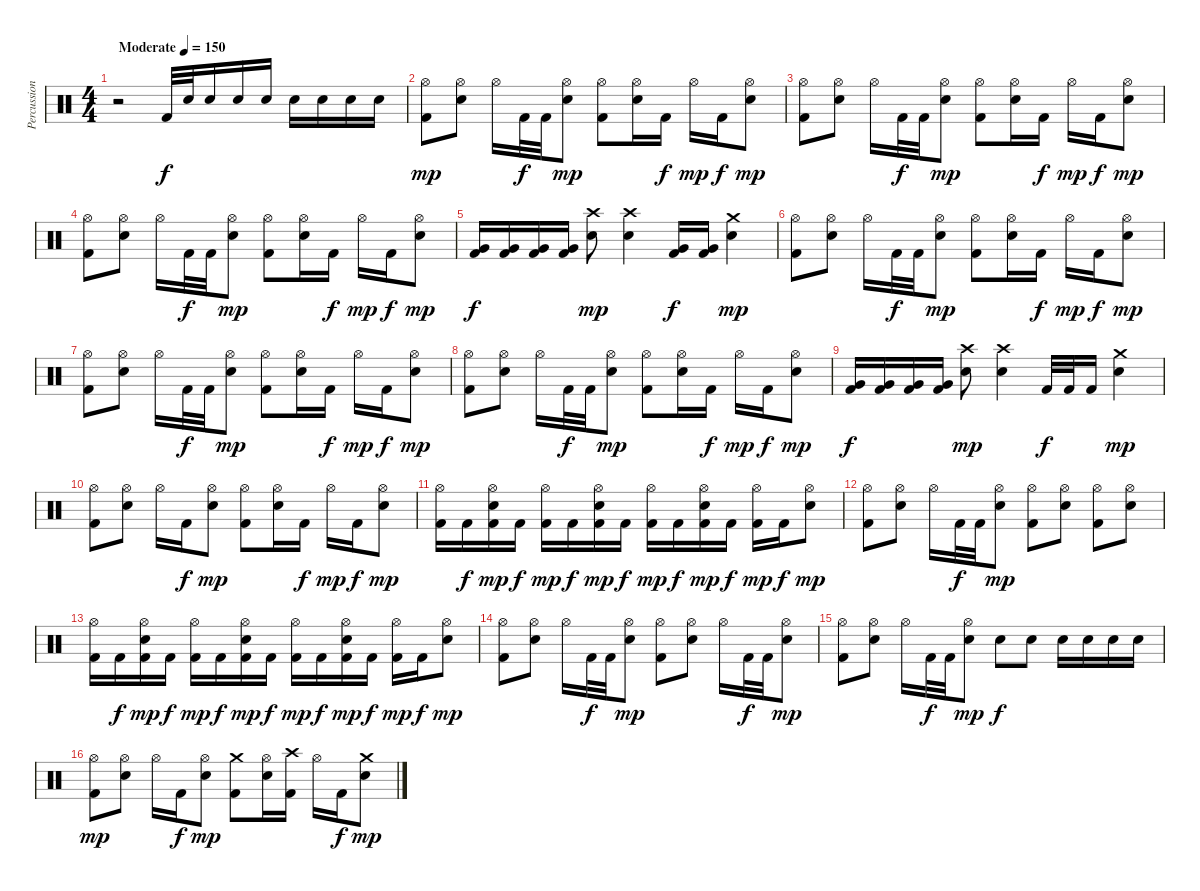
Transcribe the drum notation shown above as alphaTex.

\track ("Percussion" "Percussion") {instrument percussion}
\staff {score}
\articulation defaults
\ts (4 4)
\tempo (150 "Moderate")
\clef neutral
\ks c
r.2{dy f} "Kick (hit) 2".32 "Snare (hit) 2".32 "Snare (hit) 2".16 "Snare (hit) 2".16 "Snare (hit) 2".16 "Snare (hit) 2".16 "Snare (hit) 2".16 "Snare (hit) 2".16 "Snare (hit) 2".16 |
("Hi-Hat (open)" "Kick (hit) 2").8{dy mp} ("Snare (hit) 2" "Hi-Hat (open)").8 "Hi-Hat (open)".16 "Kick (hit) 2".32{dy f} "Kick (hit) 2".32 ("Snare (hit) 2" "Hi-Hat (open)").8{dy mp} ("Hi-Hat (open)" "Kick (hit) 2").8 ("Snare (hit) 2" "Hi-Hat (open)").16 "Kick (hit) 2".16{dy f} "Hi-Hat (open)".16{dy mp} "Kick (hit) 2".16{dy f} ("Snare (hit) 2" "Hi-Hat (open)").8{dy mp} |
("Hi-Hat (open)" "Kick (hit) 2").8 ("Snare (hit) 2" "Hi-Hat (open)").8 "Hi-Hat (open)".16 "Kick (hit) 2".32{dy f} "Kick (hit) 2".32 ("Snare (hit) 2" "Hi-Hat (open)").8{dy mp} ("Hi-Hat (open)" "Kick (hit) 2").8 ("Snare (hit) 2" "Hi-Hat (open)").16 "Kick (hit) 2".16{dy f} "Hi-Hat (open)".16{dy mp} "Kick (hit) 2".16{dy f} ("Snare (hit) 2" "Hi-Hat (open)").8{dy mp} |
("Hi-Hat (open)" "Kick (hit) 2").8 ("Snare (hit) 2" "Hi-Hat (open)").8 "Hi-Hat (open)".16 "Kick (hit) 2".32{dy f} "Kick (hit) 2".32 ("Snare (hit) 2" "Hi-Hat (open)").8{dy mp} ("Hi-Hat (open)" "Kick (hit) 2").8 ("Snare (hit) 2" "Hi-Hat (open)").16 "Kick (hit) 2".16{dy f} "Hi-Hat (open)".16{dy mp} "Kick (hit) 2".16{dy f} ("Snare (hit) 2" "Hi-Hat (open)").8{dy mp} |
("Very Low Tom (hit)" "Kick (hit) 2").16{dy f} ("Very Low Tom (hit)" "Kick (hit) 2").16 ("Very Low Tom (hit)" "Kick (hit) 2").16 ("Very Low Tom (hit)" "Kick (hit) 2").16 ("Crash high (hit)" "Snare (hit) 2").8{dy mp} ("Crash high (hit)" "Snare (hit) 2").4 ("Very Low Tom (hit)" "Kick (hit) 2").16{dy f} ("Very Low Tom (hit)" "Kick (hit) 2").16 ("Crash medium (hit)" "Snare (hit) 2").4{dy mp} |
("Hi-Hat (open)" "Kick (hit) 2").8 ("Snare (hit) 2" "Hi-Hat (open)").8 "Hi-Hat (open)".16 "Kick (hit) 2".32{dy f} "Kick (hit) 2".32 ("Snare (hit) 2" "Hi-Hat (open)").8{dy mp} ("Hi-Hat (open)" "Kick (hit) 2").8 ("Snare (hit) 2" "Hi-Hat (open)").16 "Kick (hit) 2".16{dy f} "Hi-Hat (open)".16{dy mp} "Kick (hit) 2".16{dy f} ("Snare (hit) 2" "Hi-Hat (open)").8{dy mp} |
("Hi-Hat (open)" "Kick (hit) 2").8 ("Snare (hit) 2" "Hi-Hat (open)").8 "Hi-Hat (open)".16 "Kick (hit) 2".32{dy f} "Kick (hit) 2".32 ("Snare (hit) 2" "Hi-Hat (open)").8{dy mp} ("Hi-Hat (open)" "Kick (hit) 2").8 ("Snare (hit) 2" "Hi-Hat (open)").16 "Kick (hit) 2".16{dy f} "Hi-Hat (open)".16{dy mp} "Kick (hit) 2".16{dy f} ("Snare (hit) 2" "Hi-Hat (open)").8{dy mp} |
("Hi-Hat (open)" "Kick (hit) 2").8 ("Snare (hit) 2" "Hi-Hat (open)").8 "Hi-Hat (open)".16 "Kick (hit) 2".32{dy f} "Kick (hit) 2".32 ("Snare (hit) 2" "Hi-Hat (open)").8{dy mp} ("Hi-Hat (open)" "Kick (hit) 2").8 ("Snare (hit) 2" "Hi-Hat (open)").16 "Kick (hit) 2".16{dy f} "Hi-Hat (open)".16{dy mp} "Kick (hit) 2".16{dy f} ("Snare (hit) 2" "Hi-Hat (open)").8{dy mp} |
("Very Low Tom (hit)" "Kick (hit) 2").16{dy f} ("Very Low Tom (hit)" "Kick (hit) 2").16 ("Very Low Tom (hit)" "Kick (hit) 2").16 ("Very Low Tom (hit)" "Kick (hit) 2").16 ("Crash high (hit)" "Snare (hit) 2").8{dy mp} ("Crash high (hit)" "Snare (hit) 2").4 "Kick (hit) 2".32{dy f} "Kick (hit) 2".32 "Kick (hit) 2".16 ("Crash medium (hit)" "Snare (hit) 2").4{dy mp} |
("Hi-Hat (open)" "Kick (hit) 2").8 ("Snare (hit) 2" "Hi-Hat (open)").8 "Hi-Hat (open)".16 "Kick (hit) 2".16{dy f} ("Snare (hit) 2" "Hi-Hat (open)").8{dy mp} ("Hi-Hat (open)" "Kick (hit) 2").8 ("Snare (hit) 2" "Hi-Hat (open)").16 "Kick (hit) 2".16{dy f} "Hi-Hat (open)".16{dy mp} "Kick (hit) 2".16{dy f} ("Snare (hit) 2" "Hi-Hat (open)").8{dy mp} |
("Hi-Hat (open)" "Kick (hit) 2").16 "Kick (hit) 2".16{dy f} ("Snare (hit) 2" "Hi-Hat (open)" "Kick (hit) 2").16{dy mp} "Kick (hit) 2".16{dy f} ("Hi-Hat (open)" "Kick (hit) 2").16{dy mp} "Kick (hit) 2".16{dy f} ("Snare (hit) 2" "Hi-Hat (open)" "Kick (hit) 2").16{dy mp} "Kick (hit) 2".16{dy f} ("Hi-Hat (open)" "Kick (hit) 2").16{dy mp} "Kick (hit) 2".16{dy f} ("Snare (hit) 2" "Hi-Hat (open)" "Kick (hit) 2").16{dy mp} "Kick (hit) 2".16{dy f} ("Hi-Hat (open)" "Kick (hit) 2").16{dy mp} "Kick (hit) 2".16{dy f} ("Snare (hit) 2" "Hi-Hat (open)").8{dy mp} |
("Hi-Hat (open)" "Kick (hit) 2").8 ("Snare (hit) 2" "Hi-Hat (open)").8 "Hi-Hat (open)".16 "Kick (hit) 2".32{dy f} "Kick (hit) 2".32 ("Snare (hit) 2" "Hi-Hat (open)").8{dy mp} ("Hi-Hat (open)" "Kick (hit) 2").8 ("Snare (hit) 2" "Hi-Hat (open)").8 ("Hi-Hat (open)" "Kick (hit) 2").8 ("Snare (hit) 2" "Hi-Hat (open)").8 |
("Hi-Hat (open)" "Kick (hit) 2").16 "Kick (hit) 2".16{dy f} ("Snare (hit) 2" "Hi-Hat (open)" "Kick (hit) 2").16{dy mp} "Kick (hit) 2".16{dy f} ("Hi-Hat (open)" "Kick (hit) 2").16{dy mp} "Kick (hit) 2".16{dy f} ("Snare (hit) 2" "Hi-Hat (open)" "Kick (hit) 2").16{dy mp} "Kick (hit) 2".16{dy f} ("Hi-Hat (open)" "Kick (hit) 2").16{dy mp} "Kick (hit) 2".16{dy f} ("Snare (hit) 2" "Hi-Hat (open)" "Kick (hit) 2").16{dy mp} "Kick (hit) 2".16{dy f} ("Hi-Hat (open)" "Kick (hit) 2").16{dy mp} "Kick (hit) 2".16{dy f} ("Snare (hit) 2" "Hi-Hat (open)").8{dy mp} |
("Hi-Hat (open)" "Kick (hit) 2").8 ("Snare (hit) 2" "Hi-Hat (open)").8 "Hi-Hat (open)".16 "Kick (hit) 2".32{dy f} "Kick (hit) 2".32 ("Snare (hit) 2" "Hi-Hat (open)").8{dy mp} ("Hi-Hat (open)" "Kick (hit) 2").8 ("Snare (hit) 2" "Hi-Hat (open)").8 "Hi-Hat (open)".16 "Kick (hit) 2".32{dy f} "Kick (hit) 2".32 ("Snare (hit) 2" "Hi-Hat (open)").8{dy mp} |
("Hi-Hat (open)" "Kick (hit) 2").8 ("Snare (hit) 2" "Hi-Hat (open)").8 "Hi-Hat (open)".16 "Kick (hit) 2".32{dy f} "Kick (hit) 2".32 ("Snare (hit) 2" "Hi-Hat (open)").8{dy mp} "Snare (hit) 2".8{dy f} "Snare (hit) 2".8 "Snare (hit) 2".16 "Snare (hit) 2".16 "Snare (hit) 2".16 "Snare (hit) 2".16 |
("Hi-Hat (open)" "Kick (hit) 2").8{dy mp} ("Snare (hit) 2" "Hi-Hat (open)").8 "Hi-Hat (open)".16 "Kick (hit) 2".16{dy f} ("Snare (hit) 2" "Hi-Hat (open)").8{dy mp} ("Crash medium (hit)" "Kick (hit) 2").8 ("Snare (hit) 2" "Hi-Hat (open)").16 ("Crash high (hit)" "Kick (hit) 2").16 "Hi-Hat (open)".16 "Kick (hit) 2".16{dy f} ("Crash medium (hit)" "Snare (hit) 2").8{dy mp}
